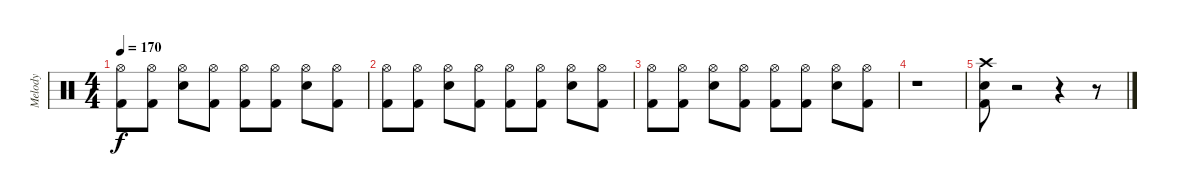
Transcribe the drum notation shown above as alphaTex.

\track ("Melody" "Melody") {instrument percussion}
\staff {score}
\articulation defaults
\ts (4 4)
\tempo 170
\clef neutral
\ks c
("Hi-Hat (open)" "Kick (hit) 2").8{dy f} ("Hi-Hat (open)" "Kick (hit) 2").8 ("Hi-Hat (open)" "Snare (hit) 2").8 ("Hi-Hat (open)" "Kick (hit) 2").8 ("Hi-Hat (open)" "Kick (hit) 2").8 ("Hi-Hat (open)" "Kick (hit) 2").8 ("Hi-Hat (open)" "Snare (hit) 2").8 ("Hi-Hat (open)" "Kick (hit) 2").8 |
("Hi-Hat (open)" "Kick (hit) 2").8 ("Hi-Hat (open)" "Kick (hit) 2").8 ("Hi-Hat (open)" "Snare (hit) 2").8 ("Hi-Hat (open)" "Kick (hit) 2").8 ("Hi-Hat (open)" "Kick (hit) 2").8 ("Hi-Hat (open)" "Kick (hit) 2").8 ("Hi-Hat (open)" "Snare (hit) 2").8 ("Hi-Hat (open)" "Kick (hit) 2").8 |
("Hi-Hat (open)" "Kick (hit) 2").8 ("Hi-Hat (open)" "Kick (hit) 2").8 ("Hi-Hat (open)" "Snare (hit) 2").8 ("Hi-Hat (open)" "Kick (hit) 2").8 ("Hi-Hat (open)" "Kick (hit) 2").8 ("Hi-Hat (open)" "Kick (hit) 2").8 ("Hi-Hat (open)" "Snare (hit) 2").8 ("Hi-Hat (open)" "Kick (hit) 2").8 |
r.1 |
("Crash high (hit)" "Snare (hit) 2" "Kick (hit) 2").8 r.2 r.4 r.8
